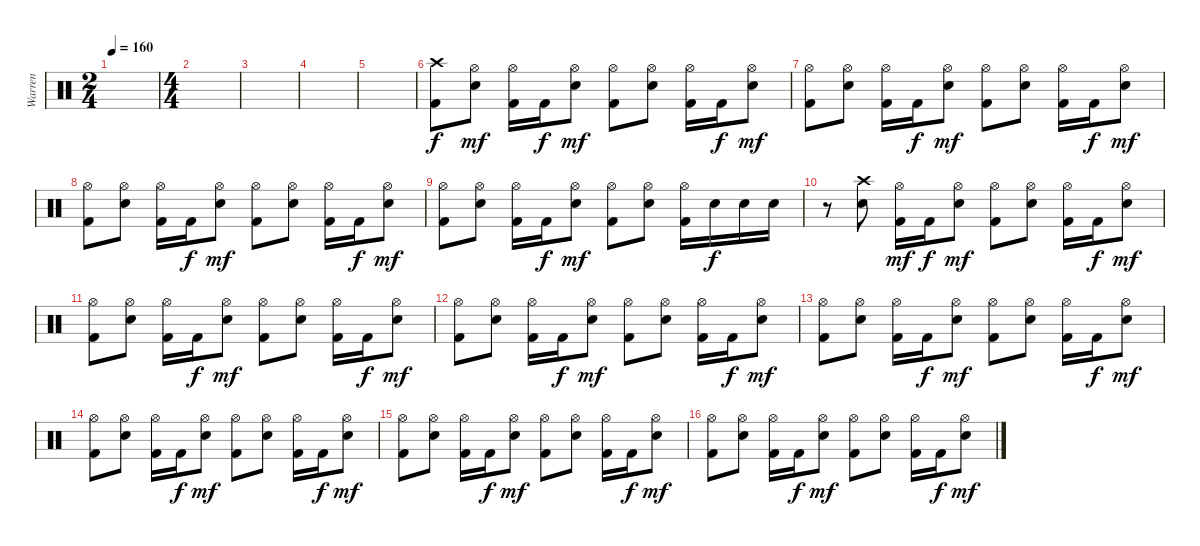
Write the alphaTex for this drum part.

\track ("Warren" "Warren") {instrument percussion}
\staff {score}
\articulation defaults
\ts (2 4)
\tempo 160
\clef neutral
\ks c
|
\ts (4 4)
|
|
|
|
("Crash high (hit)" "Kick (hit) 2").8 ("Hi-Hat (open)" "Electric Snare (hit)").8{dy mf} ("Hi-Hat (open)" "Kick (hit) 2").16 "Kick (hit) 2".16{dy f} ("Hi-Hat (open)" "Electric Snare (hit)").8{dy mf} ("Hi-Hat (open)" "Kick (hit) 2").8 ("Hi-Hat (open)" "Electric Snare (hit)").8 ("Hi-Hat (open)" "Kick (hit) 2").16 "Kick (hit) 2".16{dy f} ("Hi-Hat (open)" "Electric Snare (hit)").8{dy mf} |
("Hi-Hat (open)" "Kick (hit) 2").8 ("Hi-Hat (open)" "Electric Snare (hit)").8 ("Hi-Hat (open)" "Kick (hit) 2").16 "Kick (hit) 2".16{dy f} ("Hi-Hat (open)" "Electric Snare (hit)").8{dy mf} ("Hi-Hat (open)" "Kick (hit) 2").8 ("Hi-Hat (open)" "Electric Snare (hit)").8 ("Hi-Hat (open)" "Kick (hit) 2").16 "Kick (hit) 2".16{dy f} ("Hi-Hat (open)" "Electric Snare (hit)").8{dy mf} |
("Hi-Hat (open)" "Kick (hit) 2").8 ("Hi-Hat (open)" "Electric Snare (hit)").8 ("Hi-Hat (open)" "Kick (hit) 2").16 "Kick (hit) 2".16{dy f} ("Hi-Hat (open)" "Electric Snare (hit)").8{dy mf} ("Hi-Hat (open)" "Kick (hit) 2").8 ("Hi-Hat (open)" "Electric Snare (hit)").8 ("Hi-Hat (open)" "Kick (hit) 2").16 "Kick (hit) 2".16{dy f} ("Hi-Hat (open)" "Electric Snare (hit)").8{dy mf} |
("Hi-Hat (open)" "Kick (hit) 2").8 ("Hi-Hat (open)" "Electric Snare (hit)").8 ("Hi-Hat (open)" "Kick (hit) 2").16 "Kick (hit) 2".16{dy f} ("Hi-Hat (open)" "Electric Snare (hit)").8{dy mf} ("Hi-Hat (open)" "Kick (hit) 2").8 ("Hi-Hat (open)" "Electric Snare (hit)").8 ("Hi-Hat (open)" "Kick (hit) 2").16 "Electric Snare (hit)".16{dy f} "Electric Snare (hit)".16 "Electric Snare (hit)".16 |
r.8 ("Crash high (hit)" "Electric Snare (hit)").8 ("Hi-Hat (open)" "Kick (hit) 2").16{dy mf} "Kick (hit) 2".16{dy f} ("Hi-Hat (open)" "Electric Snare (hit)").8{dy mf} ("Hi-Hat (open)" "Kick (hit) 2").8 ("Hi-Hat (open)" "Electric Snare (hit)").8 ("Hi-Hat (open)" "Kick (hit) 2").16 "Kick (hit) 2".16{dy f} ("Hi-Hat (open)" "Electric Snare (hit)").8{dy mf} |
("Hi-Hat (open)" "Kick (hit) 2").8 ("Hi-Hat (open)" "Electric Snare (hit)").8 ("Hi-Hat (open)" "Kick (hit) 2").16 "Kick (hit) 2".16{dy f} ("Hi-Hat (open)" "Electric Snare (hit)").8{dy mf} ("Hi-Hat (open)" "Kick (hit) 2").8 ("Hi-Hat (open)" "Electric Snare (hit)").8 ("Hi-Hat (open)" "Kick (hit) 2").16 "Kick (hit) 2".16{dy f} ("Hi-Hat (open)" "Electric Snare (hit)").8{dy mf} |
("Hi-Hat (open)" "Kick (hit) 2").8 ("Hi-Hat (open)" "Electric Snare (hit)").8 ("Hi-Hat (open)" "Kick (hit) 2").16 "Kick (hit) 2".16{dy f} ("Hi-Hat (open)" "Electric Snare (hit)").8{dy mf} ("Hi-Hat (open)" "Kick (hit) 2").8 ("Hi-Hat (open)" "Electric Snare (hit)").8 ("Hi-Hat (open)" "Kick (hit) 2").16 "Kick (hit) 2".16{dy f} ("Hi-Hat (open)" "Electric Snare (hit)").8{dy mf} |
("Hi-Hat (open)" "Kick (hit) 2").8 ("Hi-Hat (open)" "Electric Snare (hit)").8 ("Hi-Hat (open)" "Kick (hit) 2").16 "Kick (hit) 2".16{dy f} ("Hi-Hat (open)" "Electric Snare (hit)").8{dy mf} ("Hi-Hat (open)" "Kick (hit) 2").8 ("Hi-Hat (open)" "Electric Snare (hit)").8 ("Hi-Hat (open)" "Kick (hit) 2").16 "Kick (hit) 2".16{dy f} ("Hi-Hat (open)" "Electric Snare (hit)").8{dy mf} |
("Hi-Hat (open)" "Kick (hit) 2").8 ("Hi-Hat (open)" "Electric Snare (hit)").8 ("Hi-Hat (open)" "Kick (hit) 2").16 "Kick (hit) 2".16{dy f} ("Hi-Hat (open)" "Electric Snare (hit)").8{dy mf} ("Hi-Hat (open)" "Kick (hit) 2").8 ("Hi-Hat (open)" "Electric Snare (hit)").8 ("Hi-Hat (open)" "Kick (hit) 2").16 "Kick (hit) 2".16{dy f} ("Hi-Hat (open)" "Electric Snare (hit)").8{dy mf} |
("Hi-Hat (open)" "Kick (hit) 2").8 ("Hi-Hat (open)" "Electric Snare (hit)").8 ("Hi-Hat (open)" "Kick (hit) 2").16 "Kick (hit) 2".16{dy f} ("Hi-Hat (open)" "Electric Snare (hit)").8{dy mf} ("Hi-Hat (open)" "Kick (hit) 2").8 ("Hi-Hat (open)" "Electric Snare (hit)").8 ("Hi-Hat (open)" "Kick (hit) 2").16 "Kick (hit) 2".16{dy f} ("Hi-Hat (open)" "Electric Snare (hit)").8{dy mf} |
("Hi-Hat (open)" "Kick (hit) 2").8 ("Hi-Hat (open)" "Electric Snare (hit)").8 ("Hi-Hat (open)" "Kick (hit) 2").16 "Kick (hit) 2".16{dy f} ("Hi-Hat (open)" "Electric Snare (hit)").8{dy mf} ("Hi-Hat (open)" "Kick (hit) 2").8 ("Hi-Hat (open)" "Electric Snare (hit)").8 ("Hi-Hat (open)" "Kick (hit) 2").16 "Kick (hit) 2".16{dy f} ("Hi-Hat (open)" "Electric Snare (hit)").8{dy mf}
